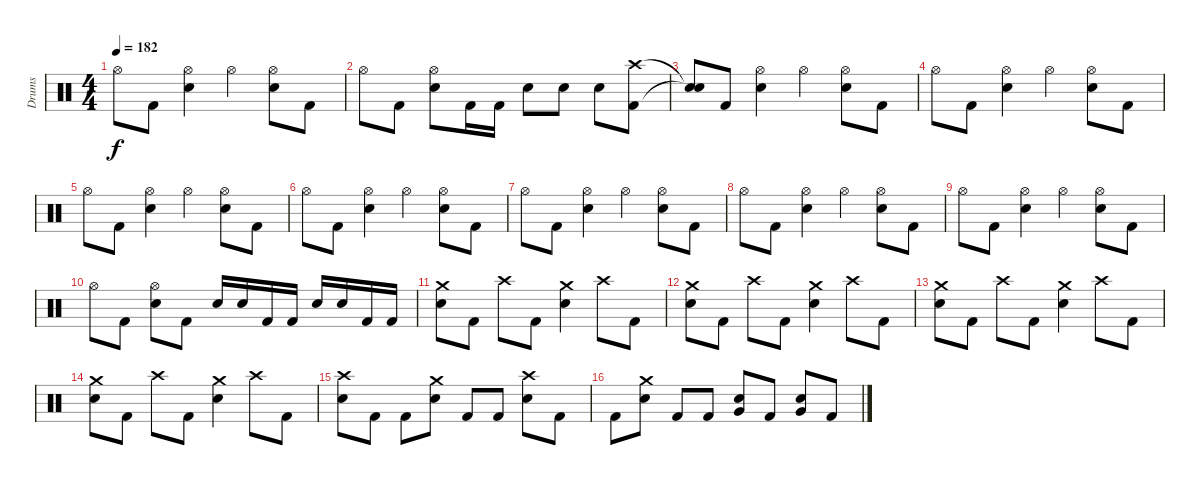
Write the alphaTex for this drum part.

\track ("Drums" "Drums") {instrument percussion}
\staff {score}
\articulation defaults
\ts (4 4)
\tempo 182
\clef neutral
\ks c "Hi-Hat (open)".8{dy f} "Kick (hit) 2".8
("Hi-Hat (open)" "Electric Snare (hit)").4 "Hi-Hat (open)".4 ("Hi-Hat (open)" "Electric Snare (hit)").8 "Kick (hit) 2".8 |
"Hi-Hat (open)".8 "Kick (hit) 2".8 ("Hi-Hat (open)" "Electric Snare (hit)").8 "Kick (hit) 2".16 "Kick (hit) 2".16 "Electric Snare (hit)".8 "Electric Snare (hit)".8 "Electric Snare (hit)".8 ("Crash high (hit)" "Kick (hit) 2").8 |
("Snare (hit)"{t} "Snare (hit)"{t}).8 "Kick (hit) 2".8 ("Hi-Hat (open)" "Electric Snare (hit)").4 "Hi-Hat (open)".4 ("Hi-Hat (open)" "Electric Snare (hit)").8 "Kick (hit) 2".8 |
"Hi-Hat (open)".8 "Kick (hit) 2".8 ("Hi-Hat (open)" "Electric Snare (hit)").4 "Hi-Hat (open)".4 ("Hi-Hat (open)" "Electric Snare (hit)").8 "Kick (hit) 2".8 |
"Hi-Hat (open)".8 "Kick (hit) 2".8 ("Hi-Hat (open)" "Electric Snare (hit)").4 "Hi-Hat (open)".4 ("Hi-Hat (open)" "Electric Snare (hit)").8 "Kick (hit) 2".8 |
"Hi-Hat (open)".8 "Kick (hit) 2".8 ("Hi-Hat (open)" "Electric Snare (hit)").4 "Hi-Hat (open)".4 ("Hi-Hat (open)" "Electric Snare (hit)").8 "Kick (hit) 2".8 |
"Hi-Hat (open)".8 "Kick (hit) 2".8 ("Hi-Hat (open)" "Electric Snare (hit)").4 "Hi-Hat (open)".4 ("Hi-Hat (open)" "Electric Snare (hit)").8 "Kick (hit) 2".8 |
"Hi-Hat (open)".8 "Kick (hit) 2".8 ("Hi-Hat (open)" "Electric Snare (hit)").4 "Hi-Hat (open)".4 ("Hi-Hat (open)" "Electric Snare (hit)").8 "Kick (hit) 2".8 |
"Hi-Hat (open)".8 "Kick (hit) 2".8 ("Hi-Hat (open)" "Electric Snare (hit)").4 "Hi-Hat (open)".4 ("Hi-Hat (open)" "Electric Snare (hit)").8 "Kick (hit) 2".8 |
"Hi-Hat (open)".8 "Kick (hit) 2".8 ("Hi-Hat (open)" "Electric Snare (hit)").8 "Kick (hit) 2".8 "Electric Snare (hit)".16 "Electric Snare (hit)".16 "Kick (hit) 2".16 "Kick (hit) 2".16 "Electric Snare (hit)".16 "Electric Snare (hit)".16 "Kick (hit) 2".16 "Kick (hit) 2".16 |
("Crash medium (hit)" "Electric Snare (hit)").8 "Kick (hit) 2".8 "Crash high (hit)".8 "Kick (hit) 2".8 ("Crash medium (hit)" "Electric Snare (hit)").4 "Crash high (hit)".8 "Kick (hit) 2".8 |
("Crash medium (hit)" "Electric Snare (hit)").8 "Kick (hit) 2".8 "Crash high (hit)".8 "Kick (hit) 2".8 ("Crash medium (hit)" "Electric Snare (hit)").4 "Crash high (hit)".8 "Kick (hit) 2".8 |
("Crash medium (hit)" "Electric Snare (hit)").8 "Kick (hit) 2".8 "Crash high (hit)".8 "Kick (hit) 2".8 ("Crash medium (hit)" "Electric Snare (hit)").4 "Crash high (hit)".8 "Kick (hit) 2".8 |
("Crash medium (hit)" "Electric Snare (hit)").8 "Kick (hit) 2".8 "Crash high (hit)".8 "Kick (hit) 2".8 ("Crash medium (hit)" "Electric Snare (hit)").4 "Crash high (hit)".8 "Kick (hit) 2".8 |
("Crash high (hit)" "Electric Snare (hit)").8 "Kick (hit) 2".8 "Kick (hit) 2".8 ("Crash medium (hit)" "Electric Snare (hit)").8 "Kick (hit) 2".8 "Kick (hit) 2".8 ("Crash high (hit)" "Electric Snare (hit)").8 "Kick (hit) 2".8 |
"Kick (hit) 2".8 ("Crash medium (hit)" "Electric Snare (hit)").8 "Kick (hit) 2".8 "Kick (hit) 2".8 ("Very Low Tom (hit)" "Electric Snare (hit)").8 "Kick (hit) 2".8 ("Very Low Tom (hit)" "Electric Snare (hit)").8 "Kick (hit) 2".8
